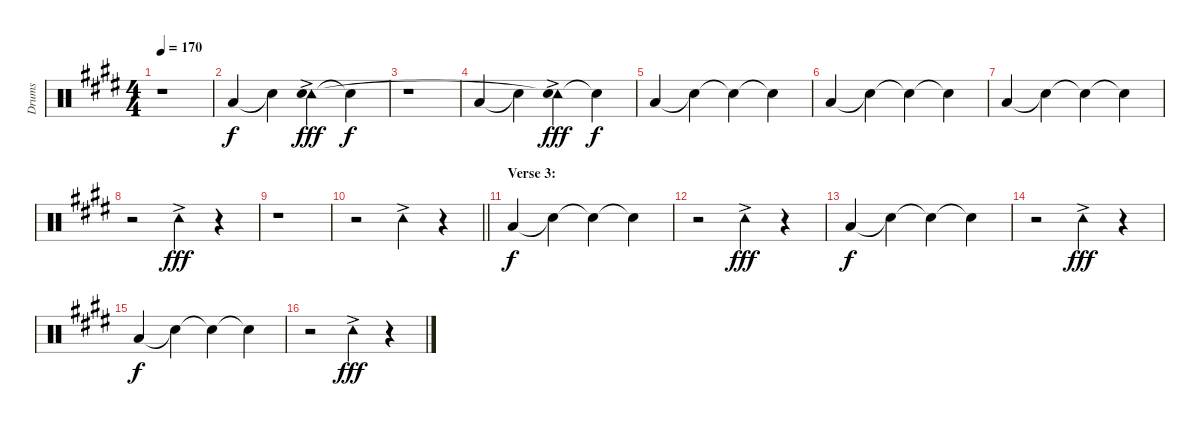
\track ("Drums" "Drums") {instrument percussion}
\staff {score}
\articulation defaults
\ts (4 4)
\tempo 170
\clef neutral
\ks c#minor
r.1{dy f} |
"Low Floor Tom (hit)".4 "Snare (hit)"{t}.4 ("Tambourine (hit)"{ac} "Snare (hit)"{t}).4{dy fff} "Snare (hit)"{t}.4{dy f} |
r.1 |
"Low Floor Tom (hit)".4 "Snare (hit)"{t}.4 ("Tambourine (hit)"{ac} "Snare (hit)"{t}).4{dy fff} "Snare (hit)"{t}.4{dy f} |
"Low Floor Tom (hit)".4 "Snare (hit)"{t}.4 "Snare (hit)"{t}.4 "Snare (hit)"{t}.4 |
"Low Floor Tom (hit)".4 "Snare (hit)"{t}.4 "Snare (hit)"{t}.4 "Snare (hit)"{t}.4 |
"Low Floor Tom (hit)".4 "Snare (hit)"{t}.4 "Snare (hit)"{t}.4 "Snare (hit)"{t}.4 |
r.2 "Tambourine (hit)"{ac}.4{dy fff} r.4 |
r.1 |
\barLineRight lightlight
r.2 "Tambourine (hit)"{ac}.4 r.4 |
\section ("" "Verse 3:")
"Low Floor Tom (hit)".4{dy f} "Snare (hit)"{t}.4 "Snare (hit)"{t}.4 "Snare (hit)"{t}.4 |
r.2 "Tambourine (hit)"{ac}.4{dy fff} r.4 |
"Low Floor Tom (hit)".4{dy f} "Snare (hit)"{t}.4 "Snare (hit)"{t}.4 "Snare (hit)"{t}.4 |
r.2 "Tambourine (hit)"{ac}.4{dy fff} r.4 |
"Low Floor Tom (hit)".4{dy f} "Snare (hit)"{t}.4 "Snare (hit)"{t}.4 "Snare (hit)"{t}.4 |
r.2 "Tambourine (hit)"{ac}.4{dy fff} r.4
